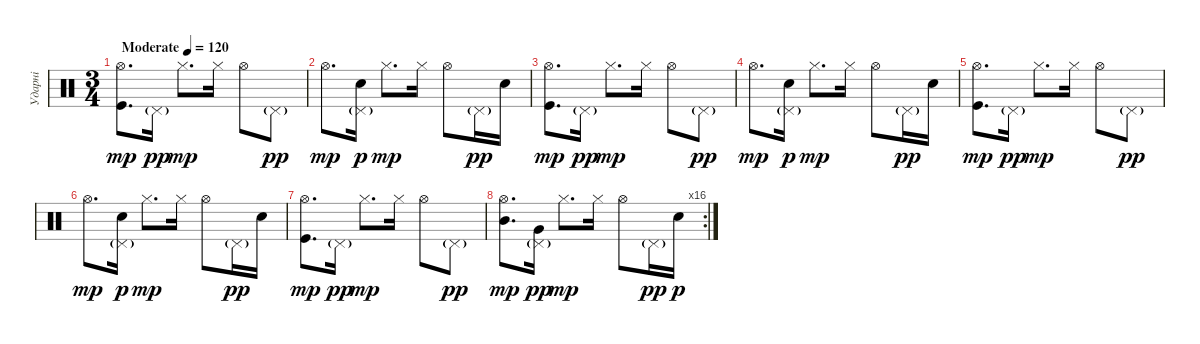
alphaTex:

\track ("Ударні" "Ударні") {instrument percussion}
\staff {score}
\articulation defaults
\ts (3 4)
\tempo (120 "Moderate")
\clef neutral
\ks c
("Hi-Hat (open)" "Kick (hit)").8{d dy mp} "Pedal Hi-Hat (hit)"{g}.16{dy pp} "Hi-Hat (closed)".8{d dy mp} "Hi-Hat (closed)".16 "Hi-Hat (open)".8 "Pedal Hi-Hat (hit)"{g}.8{dy pp} |
"Hi-Hat (open)".8{d dy mp} ("Pedal Hi-Hat (hit)"{g} "Electric Snare (hit)").16{dy p} "Hi-Hat (closed)".8{d dy mp} "Hi-Hat (closed)".16 "Hi-Hat (open)".8 "Pedal Hi-Hat (hit)"{g}.16{dy pp} "Electric Snare (hit)".16 |
("Hi-Hat (open)" "Kick (hit)").8{d dy mp} "Pedal Hi-Hat (hit)"{g}.16{dy pp} "Hi-Hat (closed)".8{d dy mp} "Hi-Hat (closed)".16 "Hi-Hat (open)".8 "Pedal Hi-Hat (hit)"{g}.8{dy pp} |
"Hi-Hat (open)".8{d dy mp} ("Pedal Hi-Hat (hit)"{g} "Electric Snare (hit)").16{dy p} "Hi-Hat (closed)".8{d dy mp} "Hi-Hat (closed)".16 "Hi-Hat (open)".8 "Pedal Hi-Hat (hit)"{g}.16{dy pp} "Electric Snare (hit)".16 |
("Hi-Hat (open)" "Kick (hit)").8{d dy mp} "Pedal Hi-Hat (hit)"{g}.16{dy pp} "Hi-Hat (closed)".8{d dy mp} "Hi-Hat (closed)".16 "Hi-Hat (open)".8 "Pedal Hi-Hat (hit)"{g}.8{dy pp} |
"Hi-Hat (open)".8{d dy mp} ("Pedal Hi-Hat (hit)"{g} "Electric Snare (hit)").16{dy p} "Hi-Hat (closed)".8{d dy mp} "Hi-Hat (closed)".16 "Hi-Hat (open)".8 "Pedal Hi-Hat (hit)"{g}.16{dy pp} "Electric Snare (hit)".16 |
("Hi-Hat (open)" "Kick (hit)").8{d dy mp} "Pedal Hi-Hat (hit)"{g}.16{dy pp} "Hi-Hat (closed)".8{d dy mp} "Hi-Hat (closed)".16 "Hi-Hat (open)".8 "Pedal Hi-Hat (hit)"{g}.8{dy pp} |
\rc 16
("Mid Tom (hit)" "Hi-Hat (open)").8{d dy mp} ("Very Low Tom (hit)" "Pedal Hi-Hat (hit)"{g}).16{dy pp} "Hi-Hat (closed)".8{d dy mp} "Hi-Hat (closed)".16 "Hi-Hat (open)".8 "Pedal Hi-Hat (hit)"{g}.16{dy pp} "Electric Snare (hit)".16{dy p}
